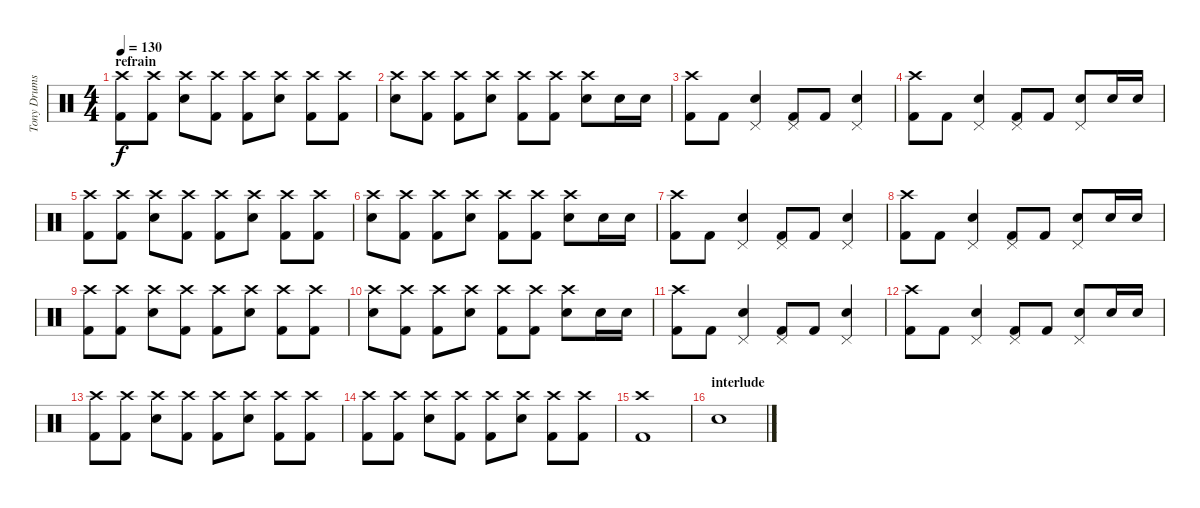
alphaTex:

\track ("Tony Drums" "Tony Drums") {instrument percussion}
\staff {score}
\articulation defaults
\ts (4 4)
\section ("" "refrain")
\tempo 130
\clef neutral
\ks c
("Crash high (hit)" "Kick (hit) 2").8{dy f} ("Crash high (hit)" "Kick (hit) 2").8 ("Crash high (hit)" "Snare (hit) 2").8 ("Crash high (hit)" "Kick (hit) 2").8 ("Crash high (hit)" "Kick (hit) 2").8 ("Crash high (hit)" "Snare (hit) 2").8 ("Crash high (hit)" "Kick (hit) 2").8 ("Crash high (hit)" "Kick (hit) 2").8 |
("Crash high (hit)" "Snare (hit) 2").8 ("Crash high (hit)" "Kick (hit) 2").8 ("Crash high (hit)" "Kick (hit) 2").8 ("Crash high (hit)" "Snare (hit) 2").8 ("Crash high (hit)" "Kick (hit) 2").8 ("Crash high (hit)" "Kick (hit) 2").8 ("Crash high (hit)" "Snare (hit) 2").8 "Snare (hit) 2".16 "Snare (hit) 2".16 |
("Crash high (hit)" "Kick (hit) 2").8 "Kick (hit) 2".8 ("Pedal Hi-Hat (hit)" "Snare (hit) 2").4 ("Pedal Hi-Hat (hit)" "Kick (hit) 2").8 "Kick (hit) 2".8 ("Pedal Hi-Hat (hit)" "Snare (hit) 2").4 |
("Crash high (hit)" "Kick (hit) 2").8 "Kick (hit) 2".8 ("Pedal Hi-Hat (hit)" "Snare (hit) 2").4 ("Pedal Hi-Hat (hit)" "Kick (hit) 2").8 "Kick (hit) 2".8 ("Pedal Hi-Hat (hit)" "Snare (hit) 2").8 "Snare (hit) 2".16 "Snare (hit) 2".16 |
("Crash high (hit)" "Kick (hit) 2").8 ("Crash high (hit)" "Kick (hit) 2").8 ("Crash high (hit)" "Snare (hit) 2").8 ("Crash high (hit)" "Kick (hit) 2").8 ("Crash high (hit)" "Kick (hit) 2").8 ("Crash high (hit)" "Snare (hit) 2").8 ("Crash high (hit)" "Kick (hit) 2").8 ("Crash high (hit)" "Kick (hit) 2").8 |
("Crash high (hit)" "Snare (hit) 2").8 ("Crash high (hit)" "Kick (hit) 2").8 ("Crash high (hit)" "Kick (hit) 2").8 ("Crash high (hit)" "Snare (hit) 2").8 ("Crash high (hit)" "Kick (hit) 2").8 ("Crash high (hit)" "Kick (hit) 2").8 ("Crash high (hit)" "Snare (hit) 2").8 "Snare (hit) 2".16 "Snare (hit) 2".16 |
("Crash high (hit)" "Kick (hit) 2").8 "Kick (hit) 2".8 ("Pedal Hi-Hat (hit)" "Snare (hit) 2").4 ("Pedal Hi-Hat (hit)" "Kick (hit) 2").8 "Kick (hit) 2".8 ("Pedal Hi-Hat (hit)" "Snare (hit) 2").4 |
("Crash high (hit)" "Kick (hit) 2").8 "Kick (hit) 2".8 ("Pedal Hi-Hat (hit)" "Snare (hit) 2").4 ("Pedal Hi-Hat (hit)" "Kick (hit) 2").8 "Kick (hit) 2".8 ("Pedal Hi-Hat (hit)" "Snare (hit) 2").8 "Snare (hit) 2".16 "Snare (hit) 2".16 |
("Crash high (hit)" "Kick (hit) 2").8 ("Crash high (hit)" "Kick (hit) 2").8 ("Crash high (hit)" "Snare (hit) 2").8 ("Crash high (hit)" "Kick (hit) 2").8 ("Crash high (hit)" "Kick (hit) 2").8 ("Crash high (hit)" "Snare (hit) 2").8 ("Crash high (hit)" "Kick (hit) 2").8 ("Crash high (hit)" "Kick (hit) 2").8 |
("Crash high (hit)" "Snare (hit) 2").8 ("Crash high (hit)" "Kick (hit) 2").8 ("Crash high (hit)" "Kick (hit) 2").8 ("Crash high (hit)" "Snare (hit) 2").8 ("Crash high (hit)" "Kick (hit) 2").8 ("Crash high (hit)" "Kick (hit) 2").8 ("Crash high (hit)" "Snare (hit) 2").8 "Snare (hit) 2".16 "Snare (hit) 2".16 |
("Crash high (hit)" "Kick (hit) 2").8 "Kick (hit) 2".8 ("Pedal Hi-Hat (hit)" "Snare (hit) 2").4 ("Pedal Hi-Hat (hit)" "Kick (hit) 2").8 "Kick (hit) 2".8 ("Pedal Hi-Hat (hit)" "Snare (hit) 2").4 |
("Crash high (hit)" "Kick (hit) 2").8 "Kick (hit) 2".8 ("Pedal Hi-Hat (hit)" "Snare (hit) 2").4 ("Pedal Hi-Hat (hit)" "Kick (hit) 2").8 "Kick (hit) 2".8 ("Pedal Hi-Hat (hit)" "Snare (hit) 2").8 "Snare (hit) 2".16 "Snare (hit) 2".16 |
("Crash high (hit)" "Kick (hit) 2").8 ("Crash high (hit)" "Kick (hit) 2").8 ("Crash high (hit)" "Snare (hit) 2").8 ("Crash high (hit)" "Kick (hit) 2").8 ("Crash high (hit)" "Kick (hit) 2").8 ("Crash high (hit)" "Snare (hit) 2").8 ("Crash high (hit)" "Kick (hit) 2").8 ("Crash high (hit)" "Kick (hit) 2").8 |
("Crash high (hit)" "Kick (hit) 2").8 ("Crash high (hit)" "Kick (hit) 2").8 ("Crash high (hit)" "Snare (hit) 2").8 ("Crash high (hit)" "Kick (hit) 2").8 ("Crash high (hit)" "Kick (hit) 2").8 ("Crash high (hit)" "Snare (hit) 2").8 ("Crash high (hit)" "Kick (hit) 2").8 ("Crash high (hit)" "Kick (hit) 2").8 |
("Crash high (hit)" "Kick (hit) 2").1 |
\section ("" "interlude")
"Snare (hit) 2".1
